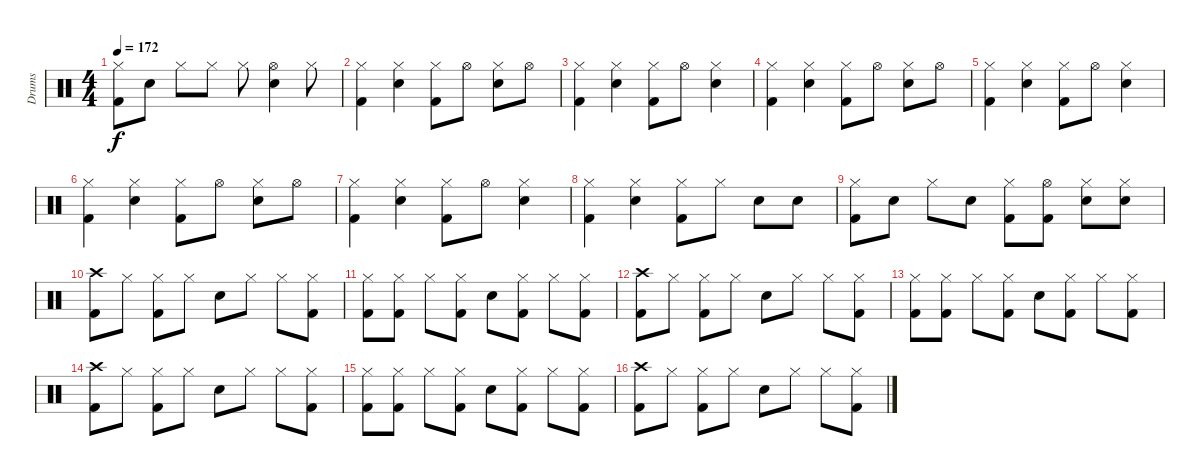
\track ("Drums" "Drums") {instrument percussion}
\staff {score}
\articulation defaults
\ts (4 4)
\tempo 172
\clef neutral
\ks c
("Hi-Hat (closed)" "Kick (hit) 2").8{dy f} "Electric Snare (hit)".8 "Hi-Hat (closed)".8 "Hi-Hat (closed)".8 "Hi-Hat (closed)".8 ("Hi-Hat (open)" "Electric Snare (hit)").4 "Hi-Hat (closed)".8 |
("Hi-Hat (closed)" "Kick (hit) 2").4 ("Hi-Hat (closed)" "Electric Snare (hit)").4 ("Hi-Hat (closed)" "Kick (hit) 2").8 "Hi-Hat (open)".8 ("Hi-Hat (closed)" "Electric Snare (hit)").8 "Hi-Hat (open)".8 |
("Hi-Hat (closed)" "Kick (hit) 2").4 ("Hi-Hat (closed)" "Electric Snare (hit)").4 ("Hi-Hat (closed)" "Kick (hit) 2").8 "Hi-Hat (open)".8 ("Hi-Hat (closed)" "Electric Snare (hit)").4 |
("Hi-Hat (closed)" "Kick (hit) 2").4 ("Hi-Hat (closed)" "Electric Snare (hit)").4 ("Hi-Hat (closed)" "Kick (hit) 2").8 "Hi-Hat (open)".8 ("Hi-Hat (closed)" "Electric Snare (hit)").8 "Hi-Hat (open)".8 |
("Hi-Hat (closed)" "Kick (hit) 2").4 ("Hi-Hat (closed)" "Electric Snare (hit)").4 ("Hi-Hat (closed)" "Kick (hit) 2").8 "Hi-Hat (open)".8 ("Hi-Hat (closed)" "Electric Snare (hit)").4 |
("Hi-Hat (closed)" "Kick (hit) 2").4 ("Hi-Hat (closed)" "Electric Snare (hit)").4 ("Hi-Hat (closed)" "Kick (hit) 2").8 "Hi-Hat (open)".8 ("Hi-Hat (closed)" "Electric Snare (hit)").8 "Hi-Hat (open)".8 |
("Hi-Hat (closed)" "Kick (hit) 2").4 ("Hi-Hat (closed)" "Electric Snare (hit)").4 ("Hi-Hat (closed)" "Kick (hit) 2").8 "Hi-Hat (open)".8 ("Hi-Hat (closed)" "Electric Snare (hit)").4 |
("Hi-Hat (closed)" "Kick (hit) 2").4 ("Hi-Hat (closed)" "Electric Snare (hit)").4 ("Hi-Hat (closed)" "Kick (hit) 2").8 "Hi-Hat (closed)".8 "Electric Snare (hit)".8 "Electric Snare (hit)".8 |
("Hi-Hat (closed)" "Kick (hit) 2").8 "Electric Snare (hit)".8 "Hi-Hat (closed)".8 "Electric Snare (hit)".8 ("Hi-Hat (closed)" "Kick (hit) 2").8 ("Hi-Hat (open)" "Kick (hit) 2").8 ("Hi-Hat (closed)" "Electric Snare (hit)").8 ("Hi-Hat (closed)" "Electric Snare (hit)").8 |
("Crash high (hit)" "Kick (hit) 2").8 "Hi-Hat (closed)".8 ("Hi-Hat (closed)" "Kick (hit) 2").8 "Hi-Hat (closed)".8 "Electric Snare (hit)".8 "Hi-Hat (closed)".8 "Hi-Hat (closed)".8 ("Hi-Hat (closed)" "Kick (hit) 2").8 |
("Hi-Hat (closed)" "Kick (hit) 2").8 ("Hi-Hat (closed)" "Kick (hit) 2").8 "Hi-Hat (closed)".8 ("Hi-Hat (closed)" "Kick (hit) 2").8 "Electric Snare (hit)".8 ("Hi-Hat (closed)" "Kick (hit) 2").8 "Hi-Hat (closed)".8 ("Hi-Hat (closed)" "Kick (hit) 2").8 |
("Crash high (hit)" "Kick (hit) 2").8 "Hi-Hat (closed)".8 ("Hi-Hat (closed)" "Kick (hit) 2").8 "Hi-Hat (closed)".8 "Electric Snare (hit)".8 "Hi-Hat (closed)".8 "Hi-Hat (closed)".8 ("Hi-Hat (closed)" "Kick (hit) 2").8 |
("Hi-Hat (closed)" "Kick (hit) 2").8 ("Hi-Hat (closed)" "Kick (hit) 2").8 "Hi-Hat (closed)".8 ("Hi-Hat (closed)" "Kick (hit) 2").8 "Electric Snare (hit)".8 ("Hi-Hat (closed)" "Kick (hit) 2").8 "Hi-Hat (closed)".8 ("Hi-Hat (closed)" "Kick (hit) 2").8 |
("Crash high (hit)" "Kick (hit) 2").8 "Hi-Hat (closed)".8 ("Hi-Hat (closed)" "Kick (hit) 2").8 "Hi-Hat (closed)".8 "Electric Snare (hit)".8 "Hi-Hat (closed)".8 "Hi-Hat (closed)".8 ("Hi-Hat (closed)" "Kick (hit) 2").8 |
("Hi-Hat (closed)" "Kick (hit) 2").8 ("Hi-Hat (closed)" "Kick (hit) 2").8 "Hi-Hat (closed)".8 ("Hi-Hat (closed)" "Kick (hit) 2").8 "Electric Snare (hit)".8 ("Hi-Hat (closed)" "Kick (hit) 2").8 "Hi-Hat (closed)".8 ("Hi-Hat (closed)" "Kick (hit) 2").8 |
("Crash high (hit)" "Kick (hit) 2").8 "Hi-Hat (closed)".8 ("Hi-Hat (closed)" "Kick (hit) 2").8 "Hi-Hat (closed)".8 "Electric Snare (hit)".8 "Hi-Hat (closed)".8 "Hi-Hat (closed)".8 ("Hi-Hat (closed)" "Kick (hit) 2").8
